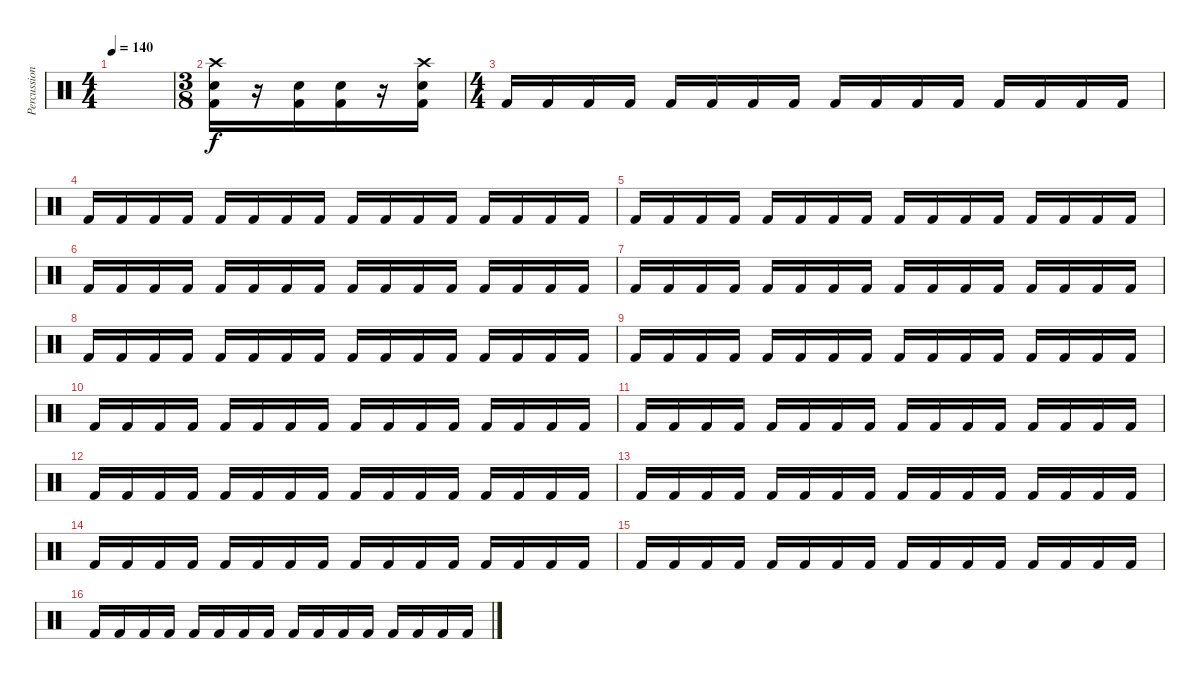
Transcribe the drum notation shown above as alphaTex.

\track ("Percussion" "Percussion") {instrument percussion}
\staff {score}
\articulation defaults
\ts (4 4)
\tempo 140
\clef neutral
\ks c
|
\ts (3 8)
("Crash high (hit)" "Snare (hit) 2" "Kick (hit) 2").16 r.16 ("Snare (hit) 2" "Kick (hit) 2").16 ("Snare (hit) 2" "Kick (hit) 2").16 r.16 ("Crash high (hit)" "Snare (hit) 2" "Kick (hit) 2").16 |
\ts (4 4)
"Kick (hit) 2".16 "Kick (hit) 2".16 "Kick (hit) 2".16 "Kick (hit) 2".16 "Kick (hit) 2".16 "Kick (hit) 2".16 "Kick (hit) 2".16 "Kick (hit) 2".16 "Kick (hit) 2".16 "Kick (hit) 2".16 "Kick (hit) 2".16 "Kick (hit) 2".16 "Kick (hit) 2".16 "Kick (hit) 2".16 "Kick (hit) 2".16 "Kick (hit) 2".16 |
"Kick (hit) 2".16 "Kick (hit) 2".16 "Kick (hit) 2".16 "Kick (hit) 2".16 "Kick (hit) 2".16 "Kick (hit) 2".16 "Kick (hit) 2".16 "Kick (hit) 2".16 "Kick (hit) 2".16 "Kick (hit) 2".16 "Kick (hit) 2".16 "Kick (hit) 2".16 "Kick (hit) 2".16 "Kick (hit) 2".16 "Kick (hit) 2".16 "Kick (hit) 2".16 |
"Kick (hit) 2".16 "Kick (hit) 2".16 "Kick (hit) 2".16 "Kick (hit) 2".16 "Kick (hit) 2".16 "Kick (hit) 2".16 "Kick (hit) 2".16 "Kick (hit) 2".16 "Kick (hit) 2".16 "Kick (hit) 2".16 "Kick (hit) 2".16 "Kick (hit) 2".16 "Kick (hit) 2".16 "Kick (hit) 2".16 "Kick (hit) 2".16 "Kick (hit) 2".16 |
"Kick (hit) 2".16 "Kick (hit) 2".16 "Kick (hit) 2".16 "Kick (hit) 2".16 "Kick (hit) 2".16 "Kick (hit) 2".16 "Kick (hit) 2".16 "Kick (hit) 2".16 "Kick (hit) 2".16 "Kick (hit) 2".16 "Kick (hit) 2".16 "Kick (hit) 2".16 "Kick (hit) 2".16 "Kick (hit) 2".16 "Kick (hit) 2".16 "Kick (hit) 2".16 |
"Kick (hit) 2".16 "Kick (hit) 2".16 "Kick (hit) 2".16 "Kick (hit) 2".16 "Kick (hit) 2".16 "Kick (hit) 2".16 "Kick (hit) 2".16 "Kick (hit) 2".16 "Kick (hit) 2".16 "Kick (hit) 2".16 "Kick (hit) 2".16 "Kick (hit) 2".16 "Kick (hit) 2".16 "Kick (hit) 2".16 "Kick (hit) 2".16 "Kick (hit) 2".16 |
"Kick (hit) 2".16 "Kick (hit) 2".16 "Kick (hit) 2".16 "Kick (hit) 2".16 "Kick (hit) 2".16 "Kick (hit) 2".16 "Kick (hit) 2".16 "Kick (hit) 2".16 "Kick (hit) 2".16 "Kick (hit) 2".16 "Kick (hit) 2".16 "Kick (hit) 2".16 "Kick (hit) 2".16 "Kick (hit) 2".16 "Kick (hit) 2".16 "Kick (hit) 2".16 |
"Kick (hit) 2".16 "Kick (hit) 2".16 "Kick (hit) 2".16 "Kick (hit) 2".16 "Kick (hit) 2".16 "Kick (hit) 2".16 "Kick (hit) 2".16 "Kick (hit) 2".16 "Kick (hit) 2".16 "Kick (hit) 2".16 "Kick (hit) 2".16 "Kick (hit) 2".16 "Kick (hit) 2".16 "Kick (hit) 2".16 "Kick (hit) 2".16 "Kick (hit) 2".16 |
"Kick (hit) 2".16 "Kick (hit) 2".16 "Kick (hit) 2".16 "Kick (hit) 2".16 "Kick (hit) 2".16 "Kick (hit) 2".16 "Kick (hit) 2".16 "Kick (hit) 2".16 "Kick (hit) 2".16 "Kick (hit) 2".16 "Kick (hit) 2".16 "Kick (hit) 2".16 "Kick (hit) 2".16 "Kick (hit) 2".16 "Kick (hit) 2".16 "Kick (hit) 2".16 |
"Kick (hit) 2".16 "Kick (hit) 2".16 "Kick (hit) 2".16 "Kick (hit) 2".16 "Kick (hit) 2".16 "Kick (hit) 2".16 "Kick (hit) 2".16 "Kick (hit) 2".16 "Kick (hit) 2".16 "Kick (hit) 2".16 "Kick (hit) 2".16 "Kick (hit) 2".16 "Kick (hit) 2".16 "Kick (hit) 2".16 "Kick (hit) 2".16 "Kick (hit) 2".16 |
"Kick (hit) 2".16 "Kick (hit) 2".16 "Kick (hit) 2".16 "Kick (hit) 2".16 "Kick (hit) 2".16 "Kick (hit) 2".16 "Kick (hit) 2".16 "Kick (hit) 2".16 "Kick (hit) 2".16 "Kick (hit) 2".16 "Kick (hit) 2".16 "Kick (hit) 2".16 "Kick (hit) 2".16 "Kick (hit) 2".16 "Kick (hit) 2".16 "Kick (hit) 2".16 |
"Kick (hit) 2".16 "Kick (hit) 2".16 "Kick (hit) 2".16 "Kick (hit) 2".16 "Kick (hit) 2".16 "Kick (hit) 2".16 "Kick (hit) 2".16 "Kick (hit) 2".16 "Kick (hit) 2".16 "Kick (hit) 2".16 "Kick (hit) 2".16 "Kick (hit) 2".16 "Kick (hit) 2".16 "Kick (hit) 2".16 "Kick (hit) 2".16 "Kick (hit) 2".16 |
"Kick (hit) 2".16 "Kick (hit) 2".16 "Kick (hit) 2".16 "Kick (hit) 2".16 "Kick (hit) 2".16 "Kick (hit) 2".16 "Kick (hit) 2".16 "Kick (hit) 2".16 "Kick (hit) 2".16 "Kick (hit) 2".16 "Kick (hit) 2".16 "Kick (hit) 2".16 "Kick (hit) 2".16 "Kick (hit) 2".16 "Kick (hit) 2".16 "Kick (hit) 2".16 |
"Kick (hit) 2".16 "Kick (hit) 2".16 "Kick (hit) 2".16 "Kick (hit) 2".16 "Kick (hit) 2".16 "Kick (hit) 2".16 "Kick (hit) 2".16 "Kick (hit) 2".16 "Kick (hit) 2".16 "Kick (hit) 2".16 "Kick (hit) 2".16 "Kick (hit) 2".16 "Kick (hit) 2".16 "Kick (hit) 2".16 "Kick (hit) 2".16 "Kick (hit) 2".16 |
"Kick (hit) 2".16 "Kick (hit) 2".16 "Kick (hit) 2".16 "Kick (hit) 2".16 "Kick (hit) 2".16 "Kick (hit) 2".16 "Kick (hit) 2".16 "Kick (hit) 2".16 "Kick (hit) 2".16 "Kick (hit) 2".16 "Kick (hit) 2".16 "Kick (hit) 2".16 "Kick (hit) 2".16 "Kick (hit) 2".16 "Kick (hit) 2".16 "Kick (hit) 2".16
